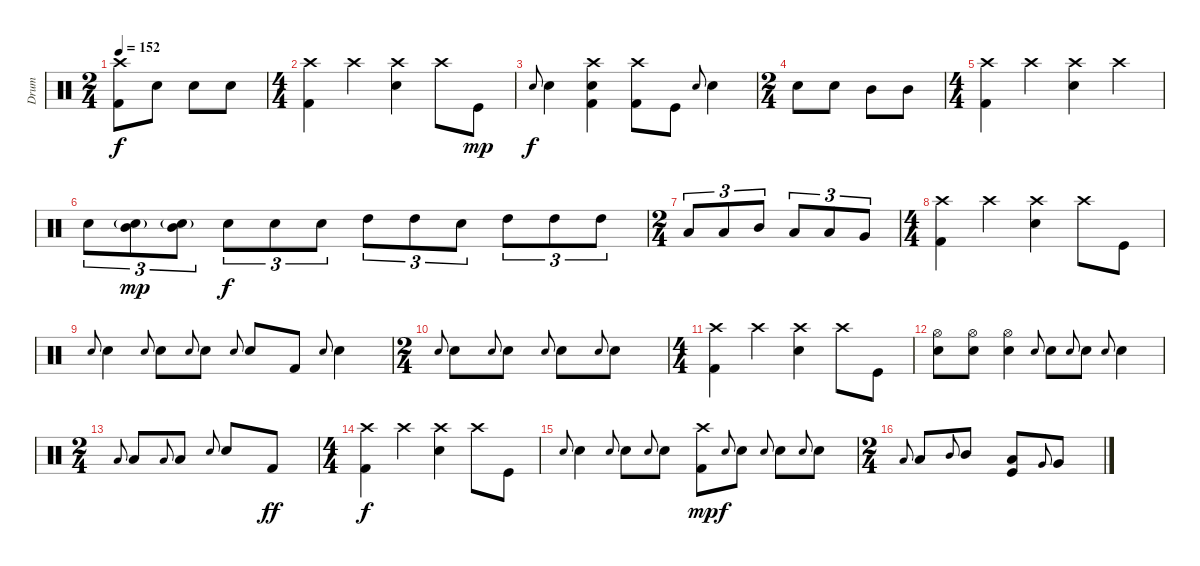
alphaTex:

\track ("Drum" "Drum") {instrument percussion}
\staff {score}
\articulation defaults
\ts (2 4)
\tempo 152
\clef neutral
\ks c
("Crash high (hit)" "Kick (hit) 2").8{dy f} "Snare (hit) 2".8 "Snare (hit) 2".8 "Snare (hit) 2".8 |
\ts (4 4)
("Crash high (hit)" "Kick (hit) 2").4 "Crash high (hit)".4 ("Crash high (hit)" "Snare (hit) 2").4 "Crash high (hit)".8 "Kick (hit)".8{dy mp} |
"Snare (hit) 2".8{gr onbeat dy f} "Snare (hit) 2".4 ("Crash high (hit)" "Snare (hit) 2" "Kick (hit) 2").4 ("Crash high (hit)" "Kick (hit) 2").8 "Kick (hit)".8 "Snare (hit) 2".8{gr onbeat} "Snare (hit) 2".4 |
\ts (2 4)
"Snare (hit) 2".8 "Snare (hit) 2".8 "Mid Tom (hit)".8 "Mid Tom (hit)".8 |
\ts (4 4)
("Crash high (hit)" "Kick (hit) 2").4 "Crash high (hit)".4 ("Crash high (hit)" "Snare (hit) 2").4 "Crash high (hit)".4 |
"Snare (hit) 2".8{tu (3 2)} ("Mid Tom (hit)" "Snare (hit) 2"{g}).8{tu (3 2) dy mp} ("Mid Tom (hit)" "Snare (hit) 2"{g}).8{tu (3 2)} "Snare (hit) 2".8{tu (3 2) dy f} "Snare (hit) 2".8{tu (3 2)} "Snare (hit) 2".8{tu (3 2)} "High Tom (hit)".8{tu (3 2)} "High Tom (hit)".8{tu (3 2)} "Snare (hit) 2".8{tu (3 2)} "High Tom (hit)".8{tu (3 2)} "High Tom (hit)".8{tu (3 2)} "High Tom (hit)".8{tu (3 2)} |
\ts (2 4)
"Low Tom (hit)".8{tu (3 2)} "Low Tom (hit)".8{tu (3 2)} "Mid Tom (hit)".8{tu (3 2)} "Low Tom (hit)".8{tu (3 2)} "Low Tom (hit)".8{tu (3 2)} "Very Low Tom (hit)".8{tu (3 2)} |
\ts (4 4)
("Crash high (hit)" "Kick (hit) 2").4 "Crash high (hit)".4 ("Crash high (hit)" "Snare (hit) 2").4 "Crash high (hit)".8 "Kick (hit)".8 |
"Snare (hit) 2".8{gr onbeat} "Snare (hit) 2".4 "Snare (hit) 2".8{gr onbeat} "Snare (hit) 2".8 "Snare (hit) 2".8{gr onbeat} "Snare (hit) 2".8 "Snare (hit) 2".8{gr onbeat} "Snare (hit) 2".8 "Kick (hit) 2".8 "Snare (hit) 2".8{gr onbeat} "Snare (hit) 2".4 |
\ts (2 4)
"Snare (hit) 2".8{gr onbeat} "Snare (hit) 2".8 "Snare (hit) 2".8{gr onbeat} "Snare (hit) 2".8 "Snare (hit) 2".8{gr onbeat} "Snare (hit) 2".8 "Snare (hit) 2".8{gr onbeat} "Snare (hit) 2".8 |
\ts (4 4)
("Crash high (hit)" "Kick (hit) 2").4 "Crash high (hit)".4 ("Crash high (hit)" "Snare (hit) 2").4 "Crash high (hit)".8 "Kick (hit)".8 |
("Hi-Hat (open)" "Snare (hit) 2").8 ("Hi-Hat (open)" "Snare (hit) 2").8 ("Hi-Hat (open)" "Snare (hit) 2").4 "Snare (hit) 2".8{gr onbeat} "Snare (hit) 2".8 "Snare (hit) 2".8{gr onbeat} "Snare (hit) 2".8 "Snare (hit) 2".8{gr onbeat} "Snare (hit) 2".4 |
\ts (2 4)
"Low Tom (hit)".8{gr onbeat} "Low Tom (hit)".8 "Low Tom (hit)".8{gr onbeat} "Low Tom (hit)".8 "Snare (hit) 2".8{gr onbeat} "Snare (hit) 2".8 "Kick (hit) 2".8{dy ff} |
\ts (4 4)
("Crash high (hit)" "Kick (hit) 2").4{dy f} "Crash high (hit)".4 ("Crash high (hit)" "Snare (hit) 2").4 "Crash high (hit)".8 "Kick (hit)".8 |
"Snare (hit) 2".8{gr onbeat} "Snare (hit) 2".4 "Snare (hit) 2".8{gr onbeat} "Snare (hit) 2".8 "Snare (hit) 2".8{gr onbeat} "Snare (hit) 2".8 ("Crash high (hit)" "Kick (hit) 2").8{dy mp} "Snare (hit) 2".8{gr onbeat dy f} "Snare (hit) 2".8 "Snare (hit) 2".8{gr onbeat} "Snare (hit) 2".8 "Snare (hit) 2".8{gr onbeat} "Snare (hit) 2".8 |
\ts (2 4)
"Low Tom (hit)".8{gr onbeat} "Low Tom (hit)".8 "Mid Tom (hit)".8{gr onbeat} "Mid Tom (hit)".8 ("Low Tom (hit)" "Kick (hit)").8 "Very Low Tom (hit)".8{gr onbeat} "Very Low Tom (hit)".8
